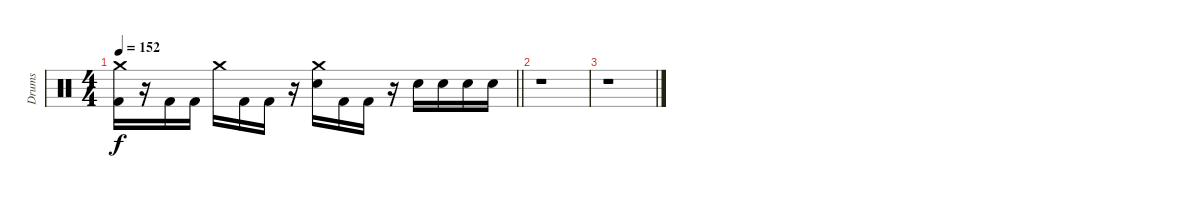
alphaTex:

\track ("Drums" "Drums") {instrument percussion}
\staff {score}
\articulation defaults
\ts (4 4)
\tempo 152
\clef neutral
\barLineRight lightlight
\ks c
("Kick (hit) 2" "Crash medium (hit)").16{dy f} r.16 "Kick (hit) 2".16 "Kick (hit) 2".16 "Crash medium (hit)".16 "Kick (hit) 2".16 "Kick (hit) 2".16 r.16 ("Snare (hit) 2" "Crash medium (hit)").16 "Kick (hit) 2".16 "Kick (hit) 2".16 r.16 "Snare (hit) 2".16 "Snare (hit) 2".16 "Snare (hit) 2".16 "Snare (hit) 2".16 |
r.1 |
r.1
